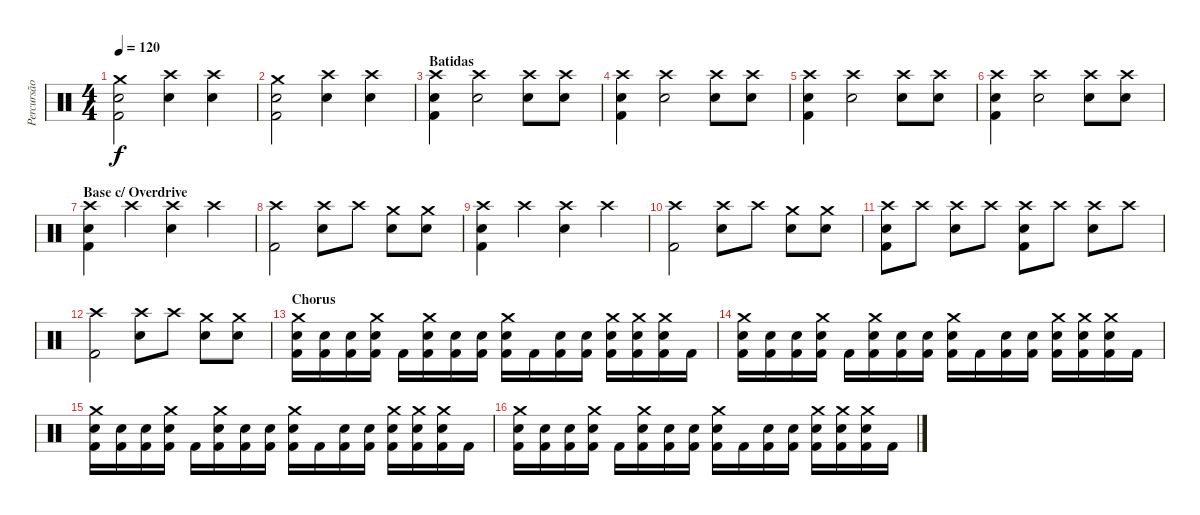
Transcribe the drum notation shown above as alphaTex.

\track ("Percursão" "Percursão") {instrument percussion}
\staff {score}
\articulation defaults
\ts (4 4)
\tempo 120
\clef neutral
\ks c
("Kick (hit) 2" "Snare (hit) 2" "Crash medium (hit)").2{dy f} ("Snare (hit) 2" "Crash high (hit)").4 ("Snare (hit) 2" "Crash high (hit)").4 |
("Kick (hit) 2" "Snare (hit) 2" "Crash medium (hit)").2 ("Snare (hit) 2" "Crash high (hit)").4 ("Snare (hit) 2" "Crash high (hit)").4 |
\section ("" "Batidas")
("Kick (hit) 2" "Snare (hit) 2" "Crash high (hit)").4 ("Snare (hit) 2" "Crash high (hit)").2 ("Snare (hit) 2" "Crash high (hit)").8 ("Snare (hit) 2" "Crash high (hit)").8 |
("Kick (hit) 2" "Snare (hit) 2" "Crash high (hit)").4 ("Snare (hit) 2" "Crash high (hit)").2 ("Snare (hit) 2" "Crash high (hit)").8 ("Snare (hit) 2" "Crash high (hit)").8 |
("Kick (hit) 2" "Snare (hit) 2" "Crash high (hit)").4 ("Snare (hit) 2" "Crash high (hit)").2 ("Snare (hit) 2" "Crash high (hit)").8 ("Snare (hit) 2" "Crash high (hit)").8 |
("Kick (hit) 2" "Snare (hit) 2" "Crash high (hit)").4 ("Snare (hit) 2" "Crash high (hit)").2 ("Snare (hit) 2" "Crash high (hit)").8 ("Snare (hit) 2" "Crash high (hit)").8 |
\section ("" "Base c/ Overdrive")
("Kick (hit) 2" "Snare (hit) 2" "Crash high (hit)").4 "Crash high (hit)".4 ("Snare (hit) 2" "Crash high (hit)").4 "Crash high (hit)".4 |
("Kick (hit) 2" "Crash high (hit)").2 ("Snare (hit) 2" "Crash high (hit)").8 "Crash high (hit)".8 ("Snare (hit) 2" "Crash medium (hit)").8 ("Snare (hit) 2" "Crash medium (hit)").8 |
("Kick (hit) 2" "Snare (hit) 2" "Crash high (hit)").4 "Crash high (hit)".4 ("Snare (hit) 2" "Crash high (hit)").4 "Crash high (hit)".4 |
("Kick (hit) 2" "Crash high (hit)").2 ("Snare (hit) 2" "Crash high (hit)").8 "Crash high (hit)".8 ("Snare (hit) 2" "Crash medium (hit)").8 ("Snare (hit) 2" "Crash medium (hit)").8 |
("Kick (hit) 2" "Snare (hit) 2" "Crash high (hit)").8 "Crash high (hit)".8 ("Snare (hit) 2" "Crash high (hit)").8 "Crash high (hit)".8 ("Kick (hit) 2" "Snare (hit) 2" "Crash high (hit)").8 "Crash high (hit)".8 ("Snare (hit) 2" "Crash high (hit)").8 "Crash high (hit)".8 |
("Kick (hit) 2" "Crash high (hit)").2 ("Snare (hit) 2" "Crash high (hit)").8 "Crash high (hit)".8 ("Snare (hit) 2" "Crash medium (hit)").8 ("Snare (hit) 2" "Crash medium (hit)").8 |
\section ("" "Chorus")
("Kick (hit) 2" "Snare (hit) 2" "Crash medium (hit)").16 ("Kick (hit) 2" "Snare (hit) 2").16 ("Kick (hit) 2" "Snare (hit) 2").16 ("Kick (hit) 2" "Snare (hit) 2" "Crash medium (hit)").16 "Kick (hit) 2".16 ("Kick (hit) 2" "Snare (hit) 2" "Crash medium (hit)").16 ("Kick (hit) 2" "Snare (hit) 2").16 ("Kick (hit) 2" "Snare (hit) 2").16 ("Kick (hit) 2" "Snare (hit) 2" "Crash medium (hit)").16 "Kick (hit) 2".16 ("Kick (hit) 2" "Snare (hit) 2").16 ("Kick (hit) 2" "Snare (hit) 2").16 ("Kick (hit) 2" "Snare (hit) 2" "Crash medium (hit)").16 ("Kick (hit) 2" "Snare (hit) 2" "Crash medium (hit)").16 ("Kick (hit) 2" "Snare (hit) 2" "Crash medium (hit)").16 "Kick (hit) 2".16 |
("Kick (hit) 2" "Snare (hit) 2" "Crash medium (hit)").16 ("Kick (hit) 2" "Snare (hit) 2").16 ("Kick (hit) 2" "Snare (hit) 2").16 ("Kick (hit) 2" "Snare (hit) 2" "Crash medium (hit)").16 "Kick (hit) 2".16 ("Kick (hit) 2" "Snare (hit) 2" "Crash medium (hit)").16 ("Kick (hit) 2" "Snare (hit) 2").16 ("Kick (hit) 2" "Snare (hit) 2").16 ("Kick (hit) 2" "Snare (hit) 2" "Crash medium (hit)").16 "Kick (hit) 2".16 ("Kick (hit) 2" "Snare (hit) 2").16 ("Kick (hit) 2" "Snare (hit) 2").16 ("Kick (hit) 2" "Snare (hit) 2" "Crash medium (hit)").16 ("Kick (hit) 2" "Snare (hit) 2" "Crash medium (hit)").16 ("Kick (hit) 2" "Snare (hit) 2" "Crash medium (hit)").16 "Kick (hit) 2".16 |
("Kick (hit) 2" "Snare (hit) 2" "Crash medium (hit)").16 ("Kick (hit) 2" "Snare (hit) 2").16 ("Kick (hit) 2" "Snare (hit) 2").16 ("Kick (hit) 2" "Snare (hit) 2" "Crash medium (hit)").16 "Kick (hit) 2".16 ("Kick (hit) 2" "Snare (hit) 2" "Crash medium (hit)").16 ("Kick (hit) 2" "Snare (hit) 2").16 ("Kick (hit) 2" "Snare (hit) 2").16 ("Kick (hit) 2" "Snare (hit) 2" "Crash medium (hit)").16 "Kick (hit) 2".16 ("Kick (hit) 2" "Snare (hit) 2").16 ("Kick (hit) 2" "Snare (hit) 2").16 ("Kick (hit) 2" "Snare (hit) 2" "Crash medium (hit)").16 ("Kick (hit) 2" "Snare (hit) 2" "Crash medium (hit)").16 ("Kick (hit) 2" "Snare (hit) 2" "Crash medium (hit)").16 "Kick (hit) 2".16 |
("Kick (hit) 2" "Snare (hit) 2" "Crash medium (hit)").16 ("Kick (hit) 2" "Snare (hit) 2").16 ("Kick (hit) 2" "Snare (hit) 2").16 ("Kick (hit) 2" "Snare (hit) 2" "Crash medium (hit)").16 "Kick (hit) 2".16 ("Kick (hit) 2" "Snare (hit) 2" "Crash medium (hit)").16 ("Kick (hit) 2" "Snare (hit) 2").16 ("Kick (hit) 2" "Snare (hit) 2").16 ("Kick (hit) 2" "Snare (hit) 2" "Crash medium (hit)").16 "Kick (hit) 2".16 ("Kick (hit) 2" "Snare (hit) 2").16 ("Kick (hit) 2" "Snare (hit) 2").16 ("Kick (hit) 2" "Snare (hit) 2" "Crash medium (hit)").16 ("Kick (hit) 2" "Snare (hit) 2" "Crash medium (hit)").16 ("Kick (hit) 2" "Snare (hit) 2" "Crash medium (hit)").16 "Kick (hit) 2".16
